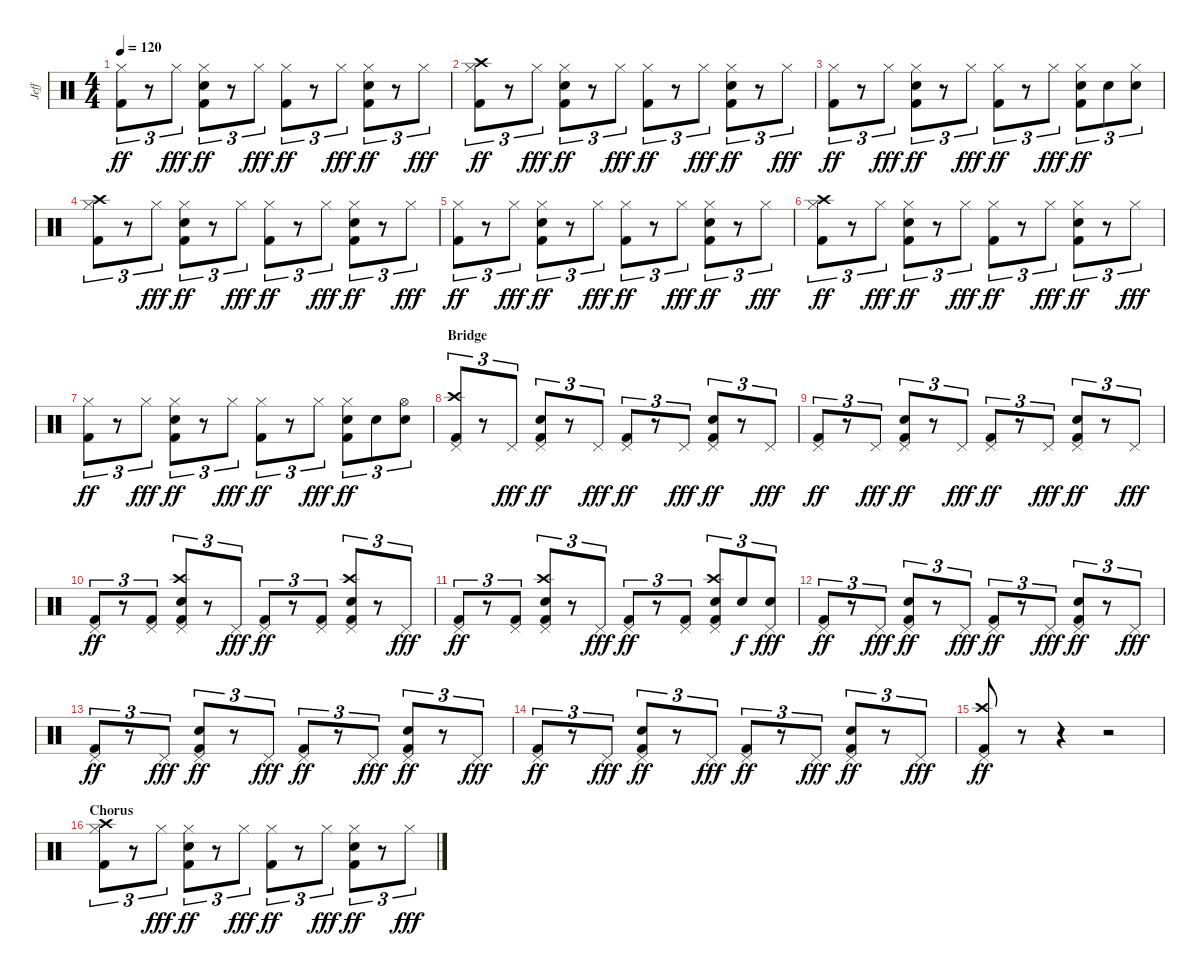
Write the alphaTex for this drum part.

\track ("Jeff" "Jeff") {instrument percussion}
\staff {score}
\articulation defaults
\ts (4 4)
\tempo 120
\clef neutral
\ks c
("Hi-Hat (closed)" "Kick (hit) 2").8{tu (3 2) dy ff} r.8{tu (3 2)} "Hi-Hat (closed)".8{tu (3 2) dy fff} ("Hi-Hat (closed)" "Snare (hit) 2" "Kick (hit) 2").8{tu (3 2) dy ff} r.8{tu (3 2)} "Hi-Hat (closed)".8{tu (3 2) dy fff} ("Hi-Hat (closed)" "Kick (hit) 2").8{tu (3 2) dy ff} r.8{tu (3 2)} "Hi-Hat (closed)".8{tu (3 2) dy fff} ("Hi-Hat (closed)" "Snare (hit) 2" "Kick (hit) 2").8{tu (3 2) dy ff} r.8{tu (3 2)} "Hi-Hat (closed)".8{tu (3 2) dy fff} |
("Crash high (hit)" "Hi-Hat (closed)" "Kick (hit) 2").8{tu (3 2) dy ff} r.8{tu (3 2)} "Hi-Hat (closed)".8{tu (3 2) dy fff} ("Hi-Hat (closed)" "Snare (hit) 2" "Kick (hit) 2").8{tu (3 2) dy ff} r.8{tu (3 2)} "Hi-Hat (closed)".8{tu (3 2) dy fff} ("Hi-Hat (closed)" "Kick (hit) 2").8{tu (3 2) dy ff} r.8{tu (3 2)} "Hi-Hat (closed)".8{tu (3 2) dy fff} ("Hi-Hat (closed)" "Snare (hit) 2" "Kick (hit) 2").8{tu (3 2) dy ff} r.8{tu (3 2)} "Hi-Hat (closed)".8{tu (3 2) dy fff} |
("Hi-Hat (closed)" "Kick (hit) 2").8{tu (3 2) dy ff} r.8{tu (3 2)} "Hi-Hat (closed)".8{tu (3 2) dy fff} ("Hi-Hat (closed)" "Snare (hit) 2" "Kick (hit) 2").8{tu (3 2) dy ff} r.8{tu (3 2)} "Hi-Hat (closed)".8{tu (3 2) dy fff} ("Hi-Hat (closed)" "Kick (hit) 2").8{tu (3 2) dy ff} r.8{tu (3 2)} "Hi-Hat (closed)".8{tu (3 2) dy fff} ("Hi-Hat (closed)" "Snare (hit) 2" "Kick (hit) 2").8{tu (3 2) dy ff} "Snare (hit) 2".8{tu (3 2)} ("Hi-Hat (closed)" "Snare (hit) 2").8{tu (3 2)} |
("Crash high (hit)" "Hi-Hat (closed)" "Kick (hit) 2").8{tu (3 2)} r.8{tu (3 2)} "Hi-Hat (closed)".8{tu (3 2) dy fff} ("Hi-Hat (closed)" "Snare (hit) 2" "Kick (hit) 2").8{tu (3 2) dy ff} r.8{tu (3 2)} "Hi-Hat (closed)".8{tu (3 2) dy fff} ("Hi-Hat (closed)" "Kick (hit) 2").8{tu (3 2) dy ff} r.8{tu (3 2)} "Hi-Hat (closed)".8{tu (3 2) dy fff} ("Hi-Hat (closed)" "Snare (hit) 2" "Kick (hit) 2").8{tu (3 2) dy ff} r.8{tu (3 2)} "Hi-Hat (closed)".8{tu (3 2) dy fff} |
("Hi-Hat (closed)" "Kick (hit) 2").8{tu (3 2) dy ff} r.8{tu (3 2)} "Hi-Hat (closed)".8{tu (3 2) dy fff} ("Hi-Hat (closed)" "Snare (hit) 2" "Kick (hit) 2").8{tu (3 2) dy ff} r.8{tu (3 2)} "Hi-Hat (closed)".8{tu (3 2) dy fff} ("Hi-Hat (closed)" "Kick (hit) 2").8{tu (3 2) dy ff} r.8{tu (3 2)} "Hi-Hat (closed)".8{tu (3 2) dy fff} ("Hi-Hat (closed)" "Snare (hit) 2" "Kick (hit) 2").8{tu (3 2) dy ff} r.8{tu (3 2)} "Hi-Hat (closed)".8{tu (3 2) dy fff} |
("Crash high (hit)" "Hi-Hat (closed)" "Kick (hit) 2").8{tu (3 2) dy ff} r.8{tu (3 2)} "Hi-Hat (closed)".8{tu (3 2) dy fff} ("Hi-Hat (closed)" "Snare (hit) 2" "Kick (hit) 2").8{tu (3 2) dy ff} r.8{tu (3 2)} "Hi-Hat (closed)".8{tu (3 2) dy fff} ("Hi-Hat (closed)" "Kick (hit) 2").8{tu (3 2) dy ff} r.8{tu (3 2)} "Hi-Hat (closed)".8{tu (3 2) dy fff} ("Hi-Hat (closed)" "Snare (hit) 2" "Kick (hit) 2").8{tu (3 2) dy ff} r.8{tu (3 2)} "Hi-Hat (closed)".8{tu (3 2) dy fff} |
("Hi-Hat (closed)" "Kick (hit) 2").8{tu (3 2) dy ff} r.8{tu (3 2)} "Hi-Hat (closed)".8{tu (3 2) dy fff} ("Hi-Hat (closed)" "Snare (hit) 2" "Kick (hit) 2").8{tu (3 2) dy ff} r.8{tu (3 2)} "Hi-Hat (closed)".8{tu (3 2) dy fff} ("Hi-Hat (closed)" "Kick (hit) 2").8{tu (3 2) dy ff} r.8{tu (3 2)} "Hi-Hat (closed)".8{tu (3 2) dy fff} ("Hi-Hat (closed)" "Snare (hit) 2" "Kick (hit) 2").8{tu (3 2) dy ff} "Snare (hit) 2".8{tu (3 2)} ("Hi-Hat (open)" "Snare (hit) 2").8{tu (3 2)} |
\section ("" "Bridge")
("Crash high (hit)" "Pedal Hi-Hat (hit)" "Kick (hit) 2").8{tu (3 2)} r.8{tu (3 2)} "Pedal Hi-Hat (hit)".8{tu (3 2) dy fff} ("Pedal Hi-Hat (hit)" "Snare (hit) 2" "Kick (hit) 2").8{tu (3 2) dy ff} r.8{tu (3 2)} "Pedal Hi-Hat (hit)".8{tu (3 2) dy fff} ("Pedal Hi-Hat (hit)" "Kick (hit) 2").8{tu (3 2) dy ff} r.8{tu (3 2)} "Pedal Hi-Hat (hit)".8{tu (3 2) dy fff} ("Pedal Hi-Hat (hit)" "Snare (hit) 2" "Kick (hit) 2").8{tu (3 2) dy ff} r.8{tu (3 2)} "Pedal Hi-Hat (hit)".8{tu (3 2) dy fff} |
("Pedal Hi-Hat (hit)" "Kick (hit) 2").8{tu (3 2) dy ff} r.8{tu (3 2)} "Pedal Hi-Hat (hit)".8{tu (3 2) dy fff} ("Pedal Hi-Hat (hit)" "Snare (hit) 2" "Kick (hit) 2").8{tu (3 2) dy ff} r.8{tu (3 2)} "Pedal Hi-Hat (hit)".8{tu (3 2) dy fff} ("Pedal Hi-Hat (hit)" "Kick (hit) 2").8{tu (3 2) dy ff} r.8{tu (3 2)} "Pedal Hi-Hat (hit)".8{tu (3 2) dy fff} ("Pedal Hi-Hat (hit)" "Snare (hit) 2" "Kick (hit) 2").8{tu (3 2) dy ff} r.8{tu (3 2)} "Pedal Hi-Hat (hit)".8{tu (3 2) dy fff} |
("Pedal Hi-Hat (hit)" "Kick (hit) 2").8{tu (3 2) dy ff} r.8{tu (3 2)} ("Pedal Hi-Hat (hit)" "Kick (hit) 2").8{tu (3 2)} ("Crash high (hit)" "Pedal Hi-Hat (hit)" "Snare (hit) 2" "Kick (hit) 2").8{tu (3 2)} r.8{tu (3 2)} "Pedal Hi-Hat (hit)".8{tu (3 2) dy fff} ("Pedal Hi-Hat (hit)" "Kick (hit) 2").8{tu (3 2) dy ff} r.8{tu (3 2)} ("Pedal Hi-Hat (hit)" "Kick (hit) 2").8{tu (3 2)} ("Crash high (hit)" "Pedal Hi-Hat (hit)" "Snare (hit) 2" "Kick (hit) 2").8{tu (3 2)} r.8{tu (3 2)} "Pedal Hi-Hat (hit)".8{tu (3 2) dy fff} |
("Pedal Hi-Hat (hit)" "Kick (hit) 2").8{tu (3 2) dy ff} r.8{tu (3 2)} ("Pedal Hi-Hat (hit)" "Kick (hit) 2").8{tu (3 2)} ("Crash high (hit)" "Pedal Hi-Hat (hit)" "Snare (hit) 2" "Kick (hit) 2").8{tu (3 2)} r.8{tu (3 2)} "Pedal Hi-Hat (hit)".8{tu (3 2) dy fff} ("Pedal Hi-Hat (hit)" "Kick (hit) 2").8{tu (3 2) dy ff} r.8{tu (3 2)} ("Pedal Hi-Hat (hit)" "Kick (hit) 2").8{tu (3 2)} ("Crash high (hit)" "Pedal Hi-Hat (hit)" "Snare (hit) 2" "Kick (hit) 2").8{tu (3 2)} "Snare (hit) 2".8{tu (3 2) dy f} ("Pedal Hi-Hat (hit)" "Snare (hit) 2").8{tu (3 2) dy fff} |
("Pedal Hi-Hat (hit)" "Kick (hit) 2").8{tu (3 2) dy ff} r.8{tu (3 2)} "Pedal Hi-Hat (hit)".8{tu (3 2) dy fff} ("Pedal Hi-Hat (hit)" "Snare (hit) 2" "Kick (hit) 2").8{tu (3 2) dy ff} r.8{tu (3 2)} "Pedal Hi-Hat (hit)".8{tu (3 2) dy fff} ("Pedal Hi-Hat (hit)" "Kick (hit) 2").8{tu (3 2) dy ff} r.8{tu (3 2)} "Pedal Hi-Hat (hit)".8{tu (3 2) dy fff} ("Pedal Hi-Hat (hit)" "Snare (hit) 2" "Kick (hit) 2").8{tu (3 2) dy ff} r.8{tu (3 2)} "Pedal Hi-Hat (hit)".8{tu (3 2) dy fff} |
("Pedal Hi-Hat (hit)" "Kick (hit) 2").8{tu (3 2) dy ff} r.8{tu (3 2)} "Pedal Hi-Hat (hit)".8{tu (3 2) dy fff} ("Pedal Hi-Hat (hit)" "Snare (hit) 2" "Kick (hit) 2").8{tu (3 2) dy ff} r.8{tu (3 2)} "Pedal Hi-Hat (hit)".8{tu (3 2) dy fff} ("Pedal Hi-Hat (hit)" "Kick (hit) 2").8{tu (3 2) dy ff} r.8{tu (3 2)} "Pedal Hi-Hat (hit)".8{tu (3 2) dy fff} ("Pedal Hi-Hat (hit)" "Snare (hit) 2" "Kick (hit) 2").8{tu (3 2) dy ff} r.8{tu (3 2)} "Pedal Hi-Hat (hit)".8{tu (3 2) dy fff} |
("Pedal Hi-Hat (hit)" "Kick (hit) 2").8{tu (3 2) dy ff} r.8{tu (3 2)} "Pedal Hi-Hat (hit)".8{tu (3 2) dy fff} ("Pedal Hi-Hat (hit)" "Snare (hit) 2" "Kick (hit) 2").8{tu (3 2) dy ff} r.8{tu (3 2)} "Pedal Hi-Hat (hit)".8{tu (3 2) dy fff} ("Pedal Hi-Hat (hit)" "Kick (hit) 2").8{tu (3 2) dy ff} r.8{tu (3 2)} "Pedal Hi-Hat (hit)".8{tu (3 2) dy fff} ("Pedal Hi-Hat (hit)" "Snare (hit) 2" "Kick (hit) 2").8{tu (3 2) dy ff} r.8{tu (3 2)} "Pedal Hi-Hat (hit)".8{tu (3 2) dy fff} |
("Crash high (hit)" "Pedal Hi-Hat (hit)" "Kick (hit) 2").8{dy ff} r.8 r.4 r.2 |
\section ("" "Chorus")
("Crash high (hit)" "Hi-Hat (closed)" "Kick (hit) 2").8{tu (3 2)} r.8{tu (3 2)} "Hi-Hat (closed)".8{tu (3 2) dy fff} ("Hi-Hat (closed)" "Snare (hit) 2" "Kick (hit) 2").8{tu (3 2) dy ff} r.8{tu (3 2)} "Hi-Hat (closed)".8{tu (3 2) dy fff} ("Hi-Hat (closed)" "Kick (hit) 2").8{tu (3 2) dy ff} r.8{tu (3 2)} "Hi-Hat (closed)".8{tu (3 2) dy fff} ("Hi-Hat (closed)" "Snare (hit) 2" "Kick (hit) 2").8{tu (3 2) dy ff} r.8{tu (3 2)} "Hi-Hat (closed)".8{tu (3 2) dy fff}
